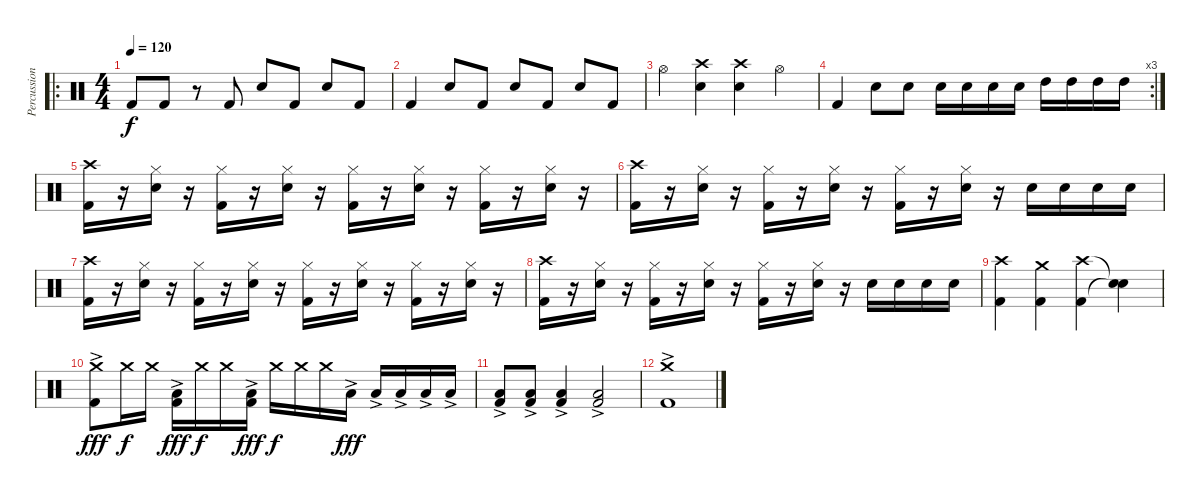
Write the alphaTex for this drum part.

\track ("Percussions" "Percussion") {instrument percussion}
\staff {score}
\articulation defaults
\ro
\ts (4 4)
\tempo 120
\clef neutral
\ks c "Kick (hit) 2".8{dy f} "Kick (hit) 2".8
r.8 "Kick (hit) 2".8 "Electric Snare (hit)".8 "Kick (hit) 2".8 "Electric Snare (hit)".8 "Kick (hit) 2".8 |
"Kick (hit) 2".4 "Electric Snare (hit)".8 "Kick (hit) 2".8 "Electric Snare (hit)".8 "Kick (hit) 2".8 "Electric Snare (hit)".8 "Kick (hit) 2".8 |
"Hi-Hat (open)".4 ("Crash high (hit)" "Electric Snare (hit)").4 ("Crash high (hit)" "Electric Snare (hit)").4 "Hi-Hat (open)".4 |
\rc 3 "Kick (hit) 2".4 "Electric Snare (hit)".8 "Electric Snare (hit)".8 "Electric Snare (hit)".16 "Electric Snare (hit)".16 "Electric Snare (hit)".16 "Electric Snare (hit)".16 "High Tom (hit)".16 "High Tom (hit)".16 "High Tom (hit)".16 "High Tom (hit)".16
|
("Crash high (hit)" "Kick (hit) 2").16 r.16 ("Hi-Hat (closed)" "Electric Snare (hit)").16 r.16 ("Hi-Hat (closed)" "Kick (hit) 2").16 r.16 ("Hi-Hat (closed)" "Electric Snare (hit)").16 r.16 ("Hi-Hat (closed)" "Kick (hit) 2").16 r.16 ("Hi-Hat (closed)" "Electric Snare (hit)").16 r.16 ("Hi-Hat (closed)" "Kick (hit) 2").16 r.16 ("Hi-Hat (closed)" "Electric Snare (hit)").16 r.16 |
("Crash high (hit)" "Kick (hit) 2").16 r.16 ("Hi-Hat (closed)" "Electric Snare (hit)").16 r.16 ("Hi-Hat (closed)" "Kick (hit) 2").16 r.16 ("Hi-Hat (closed)" "Electric Snare (hit)").16 r.16 ("Hi-Hat (closed)" "Kick (hit) 2").16 r.16 ("Hi-Hat (closed)" "Electric Snare (hit)").16 r.16 "Electric Snare (hit)".16 "Electric Snare (hit)".16 "Electric Snare (hit)".16 "Electric Snare (hit)".16 |
("Crash high (hit)" "Kick (hit) 2").16 r.16 ("Hi-Hat (closed)" "Electric Snare (hit)").16 r.16 ("Hi-Hat (closed)" "Kick (hit) 2").16 r.16 ("Hi-Hat (closed)" "Electric Snare (hit)").16 r.16 ("Hi-Hat (closed)" "Kick (hit) 2").16 r.16 ("Hi-Hat (closed)" "Electric Snare (hit)").16 r.16 ("Hi-Hat (closed)" "Kick (hit) 2").16 r.16 ("Hi-Hat (closed)" "Electric Snare (hit)").16 r.16 |
("Crash high (hit)" "Kick (hit) 2").16 r.16 ("Hi-Hat (closed)" "Electric Snare (hit)").16 r.16 ("Hi-Hat (closed)" "Kick (hit) 2").16 r.16 ("Hi-Hat (closed)" "Electric Snare (hit)").16 r.16 ("Hi-Hat (closed)" "Kick (hit) 2").16 r.16 ("Hi-Hat (closed)" "Electric Snare (hit)").16 r.16 "Electric Snare (hit)".16 "Electric Snare (hit)".16 "Electric Snare (hit)".16 "Electric Snare (hit)".16 |
("Crash high (hit)" "Kick (hit) 2").4 ("Crash medium (hit)" "Kick (hit) 2").4 ("Crash high (hit)" "Kick (hit) 2").4 ("Snare (hit)"{t} "Snare (hit)"{t}).4 |
("Crash medium (hit)" "Kick (hit) 2"{ac}).8{dy fff} "Crash medium (hit)".16{dy f} "Crash medium (hit)".16 ("Low Tom (hit)"{ac} "Kick (hit) 2"{ac}).16{dy fff} "Crash medium (hit)".16{dy f} "Crash medium (hit)".16 ("Low Tom (hit)"{ac} "Kick (hit) 2"{ac}).16{dy fff} "Crash medium (hit)".16{dy f} "Crash medium (hit)".16 "Crash medium (hit)".16 "Low Tom (hit)"{ac}.16{dy fff} "Low Tom (hit)"{ac}.16 "Low Tom (hit)"{ac}.16 "Low Tom (hit)"{ac}.16 "Low Tom (hit)"{ac}.16 |
("Low Tom (hit)"{ac} "Kick (hit) 2"{ac}).8 ("Low Tom (hit)"{ac} "Kick (hit) 2"{ac}).8 ("Low Tom (hit)"{ac} "Kick (hit) 2"{ac}).4 ("Low Tom (hit)"{ac} "Kick (hit) 2"{ac}).2 |
("Crash medium (hit)"{ac} "Kick (hit) 2"{ac}).1
